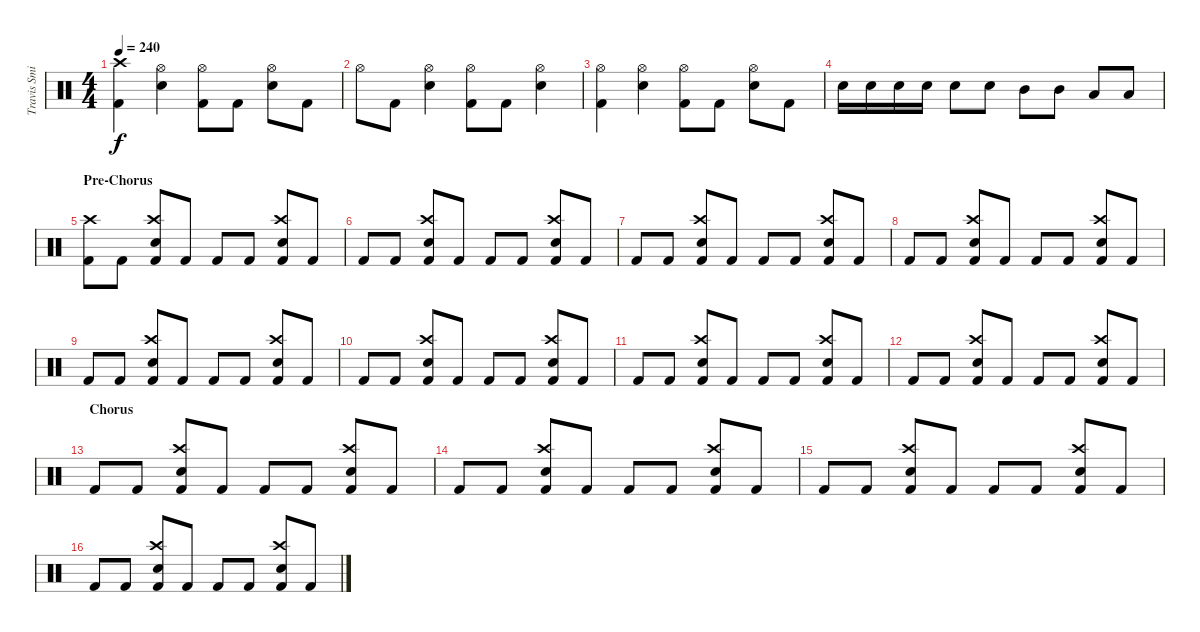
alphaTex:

\track ("Travis Smith (Drums)" "Travis Smi") {instrument percussion}
\staff {score}
\articulation defaults
\ts (4 4)
\tempo 240
\clef neutral
\ks c
("Kick (hit) 2" "Crash high (hit)").4{dy f} ("Snare (hit) 2" "Hi-Hat (open)").4 ("Kick (hit) 2" "Hi-Hat (open)").8 "Kick (hit) 2".8 ("Snare (hit) 2" "Hi-Hat (open)").8 "Kick (hit) 2".8 |
"Hi-Hat (open)".8 "Kick (hit) 2".8 ("Snare (hit) 2" "Hi-Hat (open)").4 ("Kick (hit) 2" "Hi-Hat (open)").8 "Kick (hit) 2".8 ("Snare (hit) 2" "Hi-Hat (open)").4 |
("Kick (hit) 2" "Hi-Hat (open)").4 ("Snare (hit) 2" "Hi-Hat (open)").4 ("Kick (hit) 2" "Hi-Hat (open)").8 "Kick (hit) 2".8 ("Snare (hit) 2" "Hi-Hat (open)").8 "Kick (hit) 2".8 |
"Snare (hit) 2".16 "Snare (hit) 2".16 "Snare (hit) 2".16 "Snare (hit) 2".16 "Snare (hit) 2".8 "Snare (hit) 2".8 "Mid Tom (hit)".8 "Mid Tom (hit)".8 "Low Tom (hit)".8 "Low Tom (hit)".8 |
\section ("" "Pre-Chorus")
("Kick (hit) 2" "Crash high (hit)").8 "Kick (hit) 2".8 ("Kick (hit) 2" "Snare (hit) 2" "Crash high (hit)").8 "Kick (hit) 2".8 "Kick (hit) 2".8 "Kick (hit) 2".8 ("Kick (hit) 2" "Snare (hit) 2" "Crash high (hit)").8 "Kick (hit) 2".8 |
"Kick (hit) 2".8 "Kick (hit) 2".8 ("Kick (hit) 2" "Snare (hit) 2" "Crash high (hit)").8 "Kick (hit) 2".8 "Kick (hit) 2".8 "Kick (hit) 2".8 ("Kick (hit) 2" "Snare (hit) 2" "Crash high (hit)").8 "Kick (hit) 2".8 |
"Kick (hit) 2".8 "Kick (hit) 2".8 ("Kick (hit) 2" "Snare (hit) 2" "Crash high (hit)").8 "Kick (hit) 2".8 "Kick (hit) 2".8 "Kick (hit) 2".8 ("Kick (hit) 2" "Snare (hit) 2" "Crash high (hit)").8 "Kick (hit) 2".8 |
"Kick (hit) 2".8 "Kick (hit) 2".8 ("Kick (hit) 2" "Snare (hit) 2" "Crash high (hit)").8 "Kick (hit) 2".8 "Kick (hit) 2".8 "Kick (hit) 2".8 ("Kick (hit) 2" "Snare (hit) 2" "Crash high (hit)").8 "Kick (hit) 2".8 |
"Kick (hit) 2".8 "Kick (hit) 2".8 ("Kick (hit) 2" "Snare (hit) 2" "Crash high (hit)").8 "Kick (hit) 2".8 "Kick (hit) 2".8 "Kick (hit) 2".8 ("Kick (hit) 2" "Snare (hit) 2" "Crash high (hit)").8 "Kick (hit) 2".8 |
"Kick (hit) 2".8 "Kick (hit) 2".8 ("Kick (hit) 2" "Snare (hit) 2" "Crash high (hit)").8 "Kick (hit) 2".8 "Kick (hit) 2".8 "Kick (hit) 2".8 ("Kick (hit) 2" "Snare (hit) 2" "Crash high (hit)").8 "Kick (hit) 2".8 |
"Kick (hit) 2".8 "Kick (hit) 2".8 ("Kick (hit) 2" "Snare (hit) 2" "Crash high (hit)").8 "Kick (hit) 2".8 "Kick (hit) 2".8 "Kick (hit) 2".8 ("Kick (hit) 2" "Snare (hit) 2" "Crash high (hit)").8 "Kick (hit) 2".8 |
"Kick (hit) 2".8 "Kick (hit) 2".8 ("Kick (hit) 2" "Snare (hit) 2" "Crash high (hit)").8 "Kick (hit) 2".8 "Kick (hit) 2".8 "Kick (hit) 2".8 ("Kick (hit) 2" "Snare (hit) 2" "Crash high (hit)").8 "Kick (hit) 2".8 |
\section ("" "Chorus")
"Kick (hit) 2".8 "Kick (hit) 2".8 ("Kick (hit) 2" "Snare (hit) 2" "Crash high (hit)").8 "Kick (hit) 2".8 "Kick (hit) 2".8 "Kick (hit) 2".8 ("Kick (hit) 2" "Snare (hit) 2" "Crash high (hit)").8 "Kick (hit) 2".8 |
"Kick (hit) 2".8 "Kick (hit) 2".8 ("Kick (hit) 2" "Snare (hit) 2" "Crash high (hit)").8 "Kick (hit) 2".8 "Kick (hit) 2".8 "Kick (hit) 2".8 ("Kick (hit) 2" "Snare (hit) 2" "Crash high (hit)").8 "Kick (hit) 2".8 |
"Kick (hit) 2".8 "Kick (hit) 2".8 ("Kick (hit) 2" "Snare (hit) 2" "Crash high (hit)").8 "Kick (hit) 2".8 "Kick (hit) 2".8 "Kick (hit) 2".8 ("Kick (hit) 2" "Snare (hit) 2" "Crash high (hit)").8 "Kick (hit) 2".8 |
"Kick (hit) 2".8 "Kick (hit) 2".8 ("Kick (hit) 2" "Snare (hit) 2" "Crash high (hit)").8 "Kick (hit) 2".8 "Kick (hit) 2".8 "Kick (hit) 2".8 ("Kick (hit) 2" "Snare (hit) 2" "Crash high (hit)").8 "Kick (hit) 2".8
